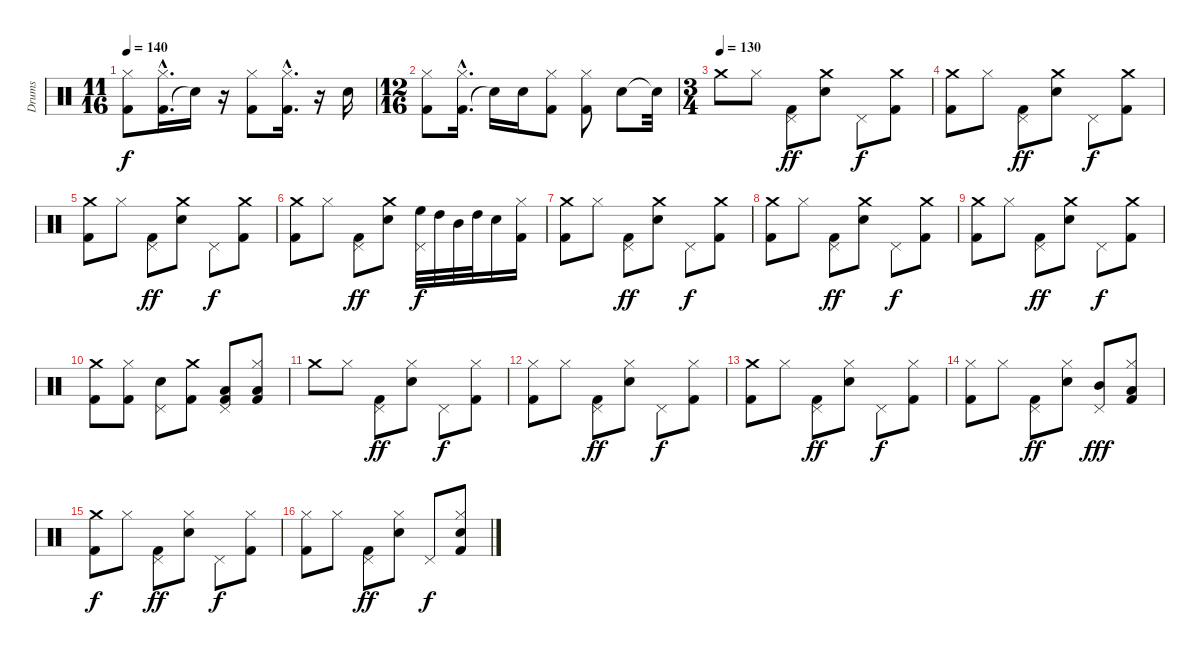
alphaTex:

\track ("Drums" "Drums") {instrument percussion}
\staff {score}
\articulation defaults
\ts (11 16)
\tempo 140
\clef neutral
\ks c
("Kick (hit) 2" "Hi-Hat (closed)").8{dy f} ("Kick (hit) 2"{hac} "Hi-Hat (closed)"{hac}).16{d} "Snare (hit)"{t}.16 r.16 ("Kick (hit) 2" "Hi-Hat (closed)").8 ("Kick (hit) 2"{hac} "Hi-Hat (closed)"{hac}).16{d} r.16 "Electric Snare (hit)".16 |
\ts (12 16)
("Kick (hit) 2" "Hi-Hat (closed)").8 ("Kick (hit) 2"{hac} "Hi-Hat (closed)"{hac}).16{d} "Snare (hit)"{t}.16 "Electric Snare (hit)".16 ("Kick (hit) 2" "Hi-Hat (closed)").8 ("Kick (hit) 2" "Hi-Hat (closed)").8 "Electric Snare (hit)".8 "Snare (hit)"{t}.32 |
\ts (3 4)
\tempo (130)
"Crash medium (hit)".8 "Hi-Hat (closed)".8 ("Kick (hit) 2" "Pedal Hi-Hat (hit)").8{dy ff} ("Electric Snare (hit)" "Crash medium (hit)").8 "Pedal Hi-Hat (hit)".8{dy f} ("Kick (hit) 2" "Crash medium (hit)").8 |
("Kick (hit) 2" "Crash medium (hit)").8 "Hi-Hat (closed)".8 ("Kick (hit) 2" "Pedal Hi-Hat (hit)").8{dy ff} ("Electric Snare (hit)" "Crash medium (hit)").8 "Pedal Hi-Hat (hit)".8{dy f} ("Kick (hit) 2" "Crash medium (hit)").8 |
("Kick (hit) 2" "Crash medium (hit)").8 "Hi-Hat (closed)".8 ("Kick (hit) 2" "Pedal Hi-Hat (hit)").8{dy ff} ("Electric Snare (hit)" "Crash medium (hit)").8 "Pedal Hi-Hat (hit)".8{dy f} ("Kick (hit) 2" "Crash medium (hit)").8 |
("Kick (hit) 2" "Crash medium (hit)").8 "Hi-Hat (closed)".8 ("Kick (hit) 2" "Pedal Hi-Hat (hit)").8{dy ff} ("Electric Snare (hit)" "Crash medium (hit)").8 ("High Floor Tom (hit)" "Pedal Hi-Hat (hit)").32{dy f} "High Tom (hit)".32 "Mid Tom (hit)".32 "High Tom (hit)".32 "Electric Snare (hit)".16 ("Kick (hit) 2" "Hi-Hat (closed)").16 |
("Kick (hit) 2" "Crash medium (hit)").8 "Hi-Hat (closed)".8 ("Kick (hit) 2" "Pedal Hi-Hat (hit)").8{dy ff} ("Electric Snare (hit)" "Crash medium (hit)").8 "Pedal Hi-Hat (hit)".8{dy f} ("Kick (hit) 2" "Crash medium (hit)").8 |
("Kick (hit) 2" "Crash medium (hit)").8 "Hi-Hat (closed)".8 ("Kick (hit) 2" "Pedal Hi-Hat (hit)").8{dy ff} ("Electric Snare (hit)" "Crash medium (hit)").8 "Pedal Hi-Hat (hit)".8{dy f} ("Kick (hit) 2" "Crash medium (hit)").8 |
("Kick (hit) 2" "Crash medium (hit)").8 "Hi-Hat (closed)".8 ("Kick (hit) 2" "Pedal Hi-Hat (hit)").8{dy ff} ("Electric Snare (hit)" "Crash medium (hit)").8 "Pedal Hi-Hat (hit)".8{dy f} ("Kick (hit) 2" "Crash medium (hit)").8 |
("Kick (hit) 2" "Crash medium (hit)").8 ("Kick (hit) 2" "Hi-Hat (closed)").8 ("Electric Snare (hit)" "Pedal Hi-Hat (hit)").8 ("Kick (hit) 2" "Crash medium (hit)").8 ("Kick (hit) 2" "Low Tom (hit)" "Pedal Hi-Hat (hit)").8 ("Kick (hit) 2" "Low Tom (hit)" "Hi-Hat (closed)").8 |
"Crash medium (hit)".8 "Hi-Hat (closed)".8 ("Kick (hit) 2" "Pedal Hi-Hat (hit)").8{dy ff} ("Electric Snare (hit)" "Hi-Hat (closed)").8 "Pedal Hi-Hat (hit)".8{dy f} ("Kick (hit) 2" "Hi-Hat (closed)").8 |
("Kick (hit) 2" "Hi-Hat (closed)").8 "Hi-Hat (closed)".8 ("Kick (hit) 2" "Pedal Hi-Hat (hit)").8{dy ff} ("Electric Snare (hit)" "Hi-Hat (closed)").8 "Pedal Hi-Hat (hit)".8{dy f} ("Kick (hit) 2" "Hi-Hat (closed)").8 |
("Kick (hit) 2" "Crash medium (hit)").8 "Hi-Hat (closed)".8 ("Kick (hit) 2" "Pedal Hi-Hat (hit)").8{dy ff} ("Electric Snare (hit)" "Hi-Hat (closed)").8 "Pedal Hi-Hat (hit)".8{dy f} ("Kick (hit) 2" "Hi-Hat (closed)").8 |
("Kick (hit) 2" "Hi-Hat (closed)").8 "Hi-Hat (closed)".8 ("Kick (hit) 2" "Pedal Hi-Hat (hit)").8{dy ff} ("Electric Snare (hit)" "Hi-Hat (closed)").8 ("Mid Tom (hit)" "Pedal Hi-Hat (hit)").8{dy fff} ("Kick (hit) 2" "Low Tom (hit)" "Hi-Hat (closed)").8 |
("Kick (hit) 2" "Crash medium (hit)").8{dy f} "Hi-Hat (closed)".8 ("Kick (hit) 2" "Pedal Hi-Hat (hit)").8{dy ff} ("Electric Snare (hit)" "Hi-Hat (closed)").8 "Pedal Hi-Hat (hit)".8{dy f} ("Kick (hit) 2" "Hi-Hat (closed)").8 |
("Kick (hit) 2" "Hi-Hat (closed)").8 "Hi-Hat (closed)".8 ("Kick (hit) 2" "Pedal Hi-Hat (hit)").8{dy ff} ("Electric Snare (hit)" "Hi-Hat (closed)").8 "Pedal Hi-Hat (hit)".8{dy f} ("Kick (hit) 2" "Electric Snare (hit)" "Hi-Hat (closed)").8
